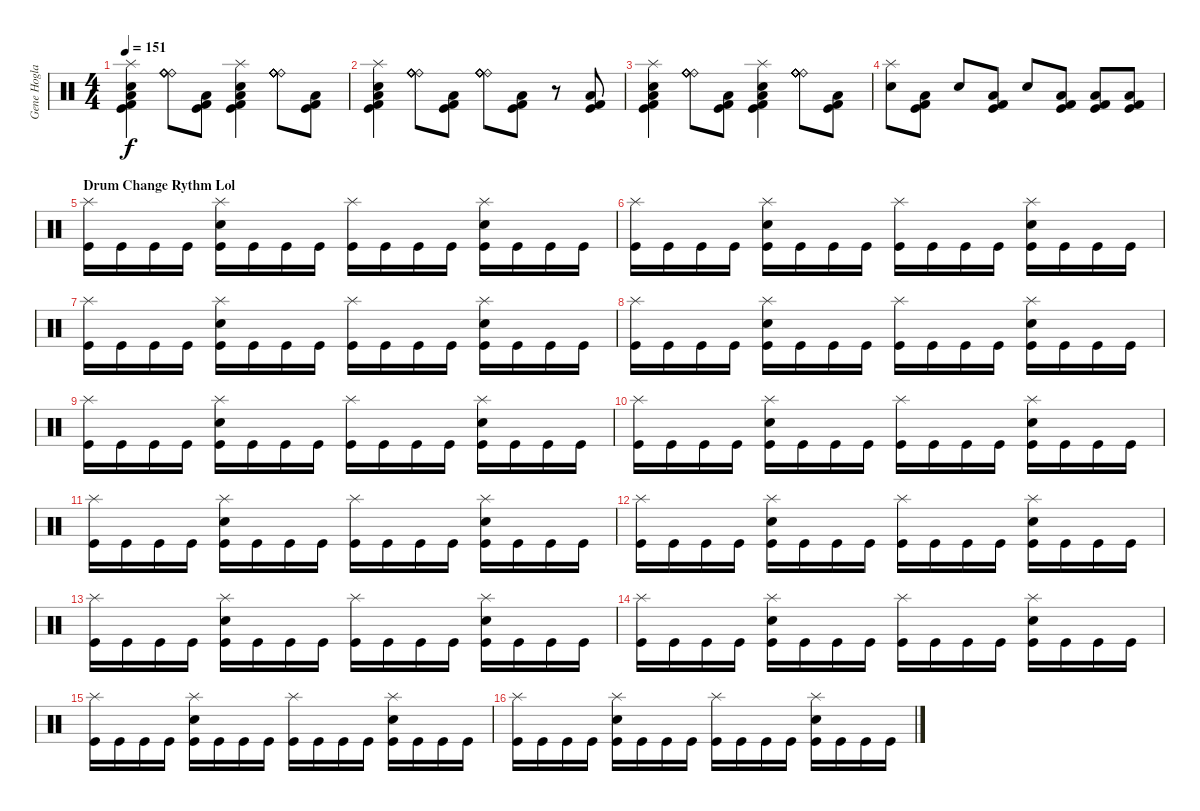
\track ("Gene Hoglan" "Gene Hogla") {instrument percussion}
\staff {score}
\articulation defaults
\ts (4 4)
\tempo 151
\clef neutral
\ks c
("Splash (hit)" "Low Floor Tom (hit)" "Kick (hit) 2" "Kick (hit)" "Snare (hit) 2").4{dy f} ("Ride (bell)" "Ride (bell)" "Ride (bell)" "Ride (bell)" "Ride (bell)" "Ride (bell)").8 ("Low Floor Tom (hit)" "Kick (hit) 2" "Kick (hit)").8 ("Splash (hit)" "Kick (hit)" "Kick (hit) 2" "Low Floor Tom (hit)" "Snare (hit) 2").4 ("Ride (bell)" "Ride (bell)" "Ride (bell)" "Ride (bell)" "Ride (bell)" "Ride (bell)").8 ("Kick (hit)" "Kick (hit) 2" "Low Floor Tom (hit)").8 |
("Splash (hit)" "Low Floor Tom (hit)" "Kick (hit) 2" "Kick (hit)" "Snare (hit) 2").4 ("Ride (bell)" "Ride (bell)" "Ride (bell)" "Ride (bell)" "Ride (bell)" "Ride (bell)").8 ("Kick (hit)" "Kick (hit) 2" "Low Floor Tom (hit)").8 ("Ride (bell)" "Ride (bell)" "Ride (bell)" "Ride (bell)" "Ride (bell)" "Ride (bell)").8 ("Kick (hit)" "Kick (hit) 2" "Low Floor Tom (hit)").8 r.8 ("Kick (hit)" "Kick (hit) 2" "Low Floor Tom (hit)").8 |
("Splash (hit)" "Kick (hit)" "Kick (hit) 2" "Low Floor Tom (hit)" "Snare (hit) 2").4 ("Ride (bell)" "Ride (bell)" "Ride (bell)" "Ride (bell)" "Ride (bell)" "Ride (bell)").8 ("Kick (hit)" "Kick (hit) 2" "Low Floor Tom (hit)").8 ("Splash (hit)" "Kick (hit)" "Kick (hit) 2" "Low Floor Tom (hit)" "Snare (hit) 2").4 ("Ride (bell)" "Ride (bell)" "Ride (bell)" "Ride (bell)" "Ride (bell)" "Ride (bell)").8 ("Kick (hit)" "Kick (hit) 2" "Low Floor Tom (hit)").8 |
("Snare (hit) 2" "Splash (hit)").8 ("Low Floor Tom (hit)" "Kick (hit) 2" "Kick (hit)").8 "Snare (hit) 2".8 ("Low Floor Tom (hit)" "Kick (hit) 2" "Kick (hit)").8 "Snare (hit) 2".8 ("Low Floor Tom (hit)" "Kick (hit) 2" "Kick (hit)").8 ("Low Floor Tom (hit)" "Kick (hit) 2" "Kick (hit)").8 ("Low Floor Tom (hit)" "Kick (hit) 2" "Kick (hit)").8 |
\section ("" "Drum Change Rythm Lol")
("Kick (hit)" "Splash (hit)").16 "Kick (hit)".16 "Kick (hit)".16 "Kick (hit)".16 ("Snare (hit) 2" "Kick (hit)" "Splash (hit)").16 "Kick (hit)".16 "Kick (hit)".16 "Kick (hit)".16 ("Kick (hit)" "Splash (hit)").16 "Kick (hit)".16 "Kick (hit)".16 "Kick (hit)".16 ("Snare (hit) 2" "Kick (hit)" "Splash (hit)").16 "Kick (hit)".16 "Kick (hit)".16 "Kick (hit)".16 |
("Kick (hit)" "Splash (hit)").16 "Kick (hit)".16 "Kick (hit)".16 "Kick (hit)".16 ("Snare (hit) 2" "Kick (hit)" "Splash (hit)").16 "Kick (hit)".16 "Kick (hit)".16 "Kick (hit)".16 ("Kick (hit)" "Splash (hit)").16 "Kick (hit)".16 "Kick (hit)".16 "Kick (hit)".16 ("Snare (hit) 2" "Kick (hit)" "Splash (hit)").16 "Kick (hit)".16 "Kick (hit)".16 "Kick (hit)".16 |
("Kick (hit)" "Splash (hit)").16 "Kick (hit)".16 "Kick (hit)".16 "Kick (hit)".16 ("Snare (hit) 2" "Kick (hit)" "Splash (hit)").16 "Kick (hit)".16 "Kick (hit)".16 "Kick (hit)".16 ("Kick (hit)" "Splash (hit)").16 "Kick (hit)".16 "Kick (hit)".16 "Kick (hit)".16 ("Snare (hit) 2" "Kick (hit)" "Splash (hit)").16 "Kick (hit)".16 "Kick (hit)".16 "Kick (hit)".16 |
("Kick (hit)" "Splash (hit)").16 "Kick (hit)".16 "Kick (hit)".16 "Kick (hit)".16 ("Snare (hit) 2" "Kick (hit)" "Splash (hit)").16 "Kick (hit)".16 "Kick (hit)".16 "Kick (hit)".16 ("Kick (hit)" "Splash (hit)").16 "Kick (hit)".16 "Kick (hit)".16 "Kick (hit)".16 ("Snare (hit) 2" "Kick (hit)" "Splash (hit)").16 "Kick (hit)".16 "Kick (hit)".16 "Kick (hit)".16 |
("Splash (hit)" "Kick (hit)").16 "Kick (hit)".16 "Kick (hit)".16 "Kick (hit)".16 ("Splash (hit)" "Kick (hit)" "Snare (hit) 2").16 "Kick (hit)".16 "Kick (hit)".16 "Kick (hit)".16 ("Splash (hit)" "Kick (hit)").16 "Kick (hit)".16 "Kick (hit)".16 "Kick (hit)".16 ("Splash (hit)" "Kick (hit)" "Snare (hit) 2").16 "Kick (hit)".16 "Kick (hit)".16 "Kick (hit)".16 |
("Kick (hit)" "Splash (hit)").16 "Kick (hit)".16 "Kick (hit)".16 "Kick (hit)".16 ("Snare (hit) 2" "Kick (hit)" "Splash (hit)").16 "Kick (hit)".16 "Kick (hit)".16 "Kick (hit)".16 ("Kick (hit)" "Splash (hit)").16 "Kick (hit)".16 "Kick (hit)".16 "Kick (hit)".16 ("Snare (hit) 2" "Kick (hit)" "Splash (hit)").16 "Kick (hit)".16 "Kick (hit)".16 "Kick (hit)".16 |
("Kick (hit)" "Splash (hit)").16 "Kick (hit)".16 "Kick (hit)".16 "Kick (hit)".16 ("Snare (hit) 2" "Kick (hit)" "Splash (hit)").16 "Kick (hit)".16 "Kick (hit)".16 "Kick (hit)".16 ("Kick (hit)" "Splash (hit)").16 "Kick (hit)".16 "Kick (hit)".16 "Kick (hit)".16 ("Snare (hit) 2" "Kick (hit)" "Splash (hit)").16 "Kick (hit)".16 "Kick (hit)".16 "Kick (hit)".16 |
("Splash (hit)" "Kick (hit)").16 "Kick (hit)".16 "Kick (hit)".16 "Kick (hit)".16 ("Splash (hit)" "Kick (hit)" "Snare (hit) 2").16 "Kick (hit)".16 "Kick (hit)".16 "Kick (hit)".16 ("Splash (hit)" "Kick (hit)").16 "Kick (hit)".16 "Kick (hit)".16 "Kick (hit)".16 ("Splash (hit)" "Kick (hit)" "Snare (hit) 2").16 "Kick (hit)".16 "Kick (hit)".16 "Kick (hit)".16 |
("Kick (hit)" "Splash (hit)").16 "Kick (hit)".16 "Kick (hit)".16 "Kick (hit)".16 ("Snare (hit) 2" "Kick (hit)" "Splash (hit)").16 "Kick (hit)".16 "Kick (hit)".16 "Kick (hit)".16 ("Kick (hit)" "Splash (hit)").16 "Kick (hit)".16 "Kick (hit)".16 "Kick (hit)".16 ("Snare (hit) 2" "Kick (hit)" "Splash (hit)").16 "Kick (hit)".16 "Kick (hit)".16 "Kick (hit)".16 |
("Kick (hit)" "Splash (hit)").16 "Kick (hit)".16 "Kick (hit)".16 "Kick (hit)".16 ("Snare (hit) 2" "Kick (hit)" "Splash (hit)").16 "Kick (hit)".16 "Kick (hit)".16 "Kick (hit)".16 ("Kick (hit)" "Splash (hit)").16 "Kick (hit)".16 "Kick (hit)".16 "Kick (hit)".16 ("Snare (hit) 2" "Kick (hit)" "Splash (hit)").16 "Kick (hit)".16 "Kick (hit)".16 "Kick (hit)".16 |
("Splash (hit)" "Kick (hit)").16 "Kick (hit)".16 "Kick (hit)".16 "Kick (hit)".16 ("Splash (hit)" "Kick (hit)" "Snare (hit) 2").16 "Kick (hit)".16 "Kick (hit)".16 "Kick (hit)".16 ("Splash (hit)" "Kick (hit)").16 "Kick (hit)".16 "Kick (hit)".16 "Kick (hit)".16 ("Splash (hit)" "Kick (hit)" "Snare (hit) 2").16 "Kick (hit)".16 "Kick (hit)".16 "Kick (hit)".16 |
("Kick (hit)" "Splash (hit)").16 "Kick (hit)".16 "Kick (hit)".16 "Kick (hit)".16 ("Snare (hit) 2" "Kick (hit)" "Splash (hit)").16 "Kick (hit)".16 "Kick (hit)".16 "Kick (hit)".16 ("Kick (hit)" "Splash (hit)").16 "Kick (hit)".16 "Kick (hit)".16 "Kick (hit)".16 ("Snare (hit) 2" "Kick (hit)" "Splash (hit)").16 "Kick (hit)".16 "Kick (hit)".16 "Kick (hit)".16
